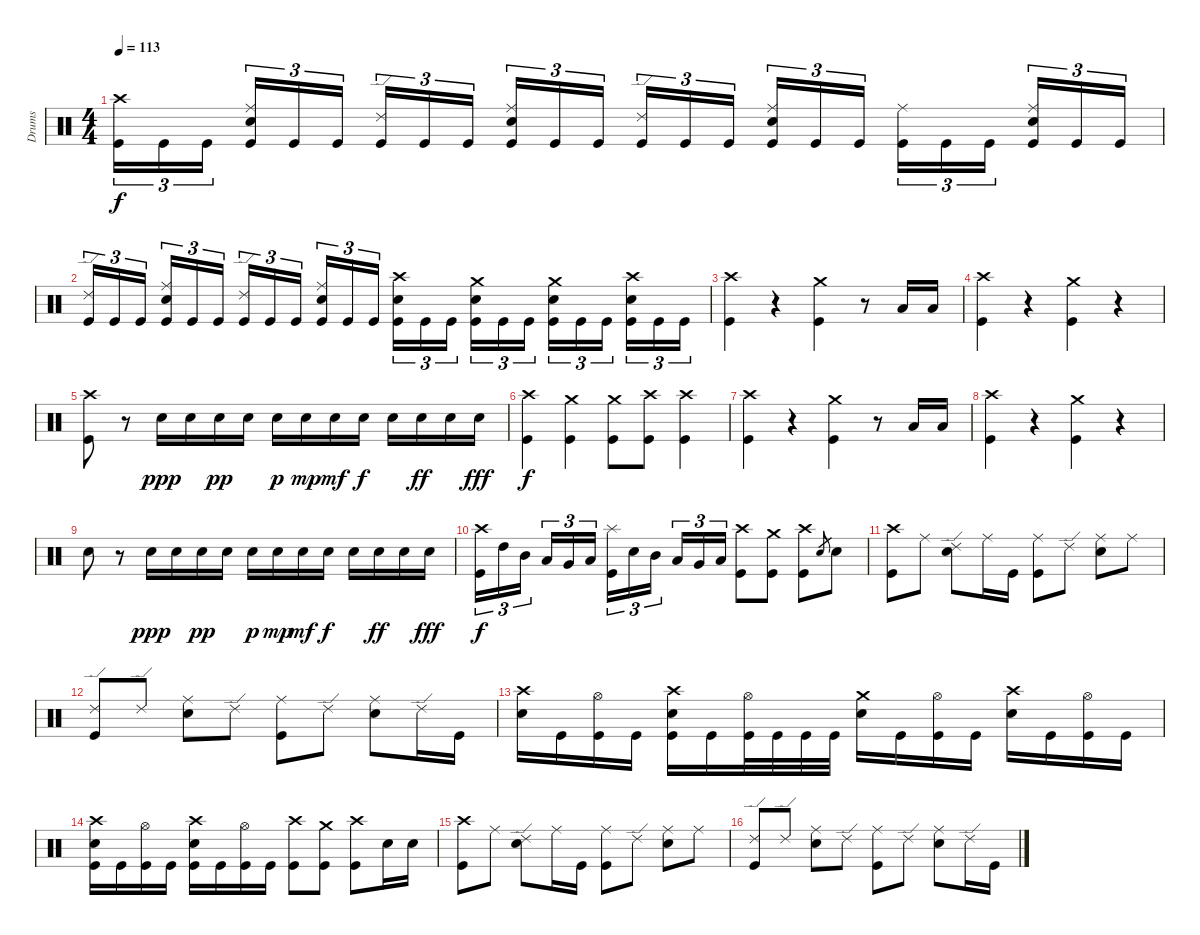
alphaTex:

\track ("Drums" "Drums") {instrument percussion}
\staff {score}
\articulation defaults
\ts (4 4)
\tempo 113
\clef neutral
\ks c
("Crash high (hit)" "Kick (hit)").16{tu (3 2) dy f} "Kick (hit)".16{tu (3 2)} "Kick (hit)".16{tu (3 2) beam splitsecondary} ("Ride (middle)" "Electric Snare (hit)" "Kick (hit)").16{tu (3 2)} "Kick (hit)".16{tu (3 2)} "Kick (hit)".16{tu (3 2)} ("Ride (edge) 2" "Kick (hit)").16{tu (3 2)} "Kick (hit)".16{tu (3 2)} "Kick (hit)".16{tu (3 2) beam splitsecondary} ("Ride (middle)" "Electric Snare (hit)" "Kick (hit)").16{tu (3 2)} "Kick (hit)".16{tu (3 2)} "Kick (hit)".16{tu (3 2)} ("Ride (edge) 2" "Kick (hit)").16{tu (3 2)} "Kick (hit)".16{tu (3 2)} "Kick (hit)".16{tu (3 2) beam splitsecondary} ("Ride (middle)" "Electric Snare (hit)" "Kick (hit)").16{tu (3 2)} "Kick (hit)".16{tu (3 2)} "Kick (hit)".16{tu (3 2)} ("Ride (middle)" "Kick (hit)").16{tu (3 2)} "Kick (hit)".16{tu (3 2)} "Kick (hit)".16{tu (3 2) beam splitsecondary} ("Ride (middle)" "Electric Snare (hit)" "Kick (hit)").16{tu (3 2)} "Kick (hit)".16{tu (3 2)} "Kick (hit)".16{tu (3 2)} |
("Ride (edge) 2" "Kick (hit)").16{tu (3 2)} "Kick (hit)".16{tu (3 2)} "Kick (hit)".16{tu (3 2) beam splitsecondary} ("Ride (middle)" "Electric Snare (hit)" "Kick (hit)").16{tu (3 2)} "Kick (hit)".16{tu (3 2)} "Kick (hit)".16{tu (3 2)} ("Ride (edge) 2" "Kick (hit)").16{tu (3 2)} "Kick (hit)".16{tu (3 2)} "Kick (hit)".16{tu (3 2) beam splitsecondary} ("Ride (middle)" "Electric Snare (hit)" "Kick (hit)").16{tu (3 2)} "Kick (hit)".16{tu (3 2)} "Kick (hit)".16{tu (3 2)} ("Crash high (hit)" "Electric Snare (hit)" "Kick (hit)").16{tu (3 2)} "Kick (hit)".16{tu (3 2)} "Kick (hit)".16{tu (3 2) beam splitsecondary} ("Crash medium (hit)" "Electric Snare (hit)" "Kick (hit)").16{tu (3 2)} "Kick (hit)".16{tu (3 2)} "Kick (hit)".16{tu (3 2)} ("Crash medium (hit)" "Electric Snare (hit)" "Kick (hit)").16{tu (3 2)} "Kick (hit)".16{tu (3 2)} "Kick (hit)".16{tu (3 2) beam splitsecondary} ("Crash high (hit)" "Electric Snare (hit)" "Kick (hit)").16{tu (3 2)} "Kick (hit)".16{tu (3 2)} "Kick (hit)".16{tu (3 2)} |
("Crash high (hit)" "Kick (hit)").4 r.4 ("Crash medium (hit)" "Kick (hit)").4 r.8 "Low Tom (hit)".16 "Low Tom (hit)".16 |
("Crash high (hit)" "Kick (hit)").4 r.4 ("Crash medium (hit)" "Kick (hit)").4 r.4 |
("Crash high (hit)" "Kick (hit)").8 r.8 "Electric Snare (hit)".16{dy ppp} "Electric Snare (hit)".16 "Electric Snare (hit)".16{dy pp} "Electric Snare (hit)".16 "Electric Snare (hit)".16{dy p} "Electric Snare (hit)".16{dy mp} "Electric Snare (hit)".16{dy mf} "Electric Snare (hit)".16{dy f} "Electric Snare (hit)".16 "Electric Snare (hit)".16{dy ff} "Electric Snare (hit)".16 "Electric Snare (hit)".16{dy fff} |
("Crash high (hit)" "Kick (hit)").4{dy f} ("Crash medium (hit)" "Kick (hit)").4 ("Crash medium (hit)" "Kick (hit)").8 ("Crash high (hit)" "Kick (hit)").8 ("Crash high (hit)" "Kick (hit)").4 |
("Crash high (hit)" "Kick (hit)").4 r.4 ("Crash medium (hit)" "Kick (hit)").4 r.8 "Low Tom (hit)".16 "Low Tom (hit)".16 |
("Crash high (hit)" "Kick (hit)").4 r.4 ("Crash medium (hit)" "Kick (hit)").4 r.4 |
"Electric Snare (hit)".8 r.8 "Electric Snare (hit)".16{dy ppp} "Electric Snare (hit)".16 "Electric Snare (hit)".16{dy pp} "Electric Snare (hit)".16 "Electric Snare (hit)".16{dy p} "Electric Snare (hit)".16{dy mp} "Electric Snare (hit)".16{dy mf} "Electric Snare (hit)".16{dy f} "Electric Snare (hit)".16 "Electric Snare (hit)".16{dy ff} "Electric Snare (hit)".16 "Electric Snare (hit)".16{dy fff} |
("Crash high (hit)" "Kick (hit)").16{tu (3 2) dy f} "High Tom (hit)".16{tu (3 2)} "Mid Tom (hit)".16{tu (3 2) beam splitsecondary} "Low Tom (hit)".16{tu (3 2)} "Very Low Tom (hit)".16{tu (3 2)} "Low Floor Tom (hit)".16{tu (3 2)} ("Splash (hit)" "Kick (hit)").16{tu (3 2)} "Electric Snare (hit)".16{tu (3 2)} "Mid Tom (hit)".16{tu (3 2) beam splitsecondary} "Low Tom (hit)".16{tu (3 2)} "Very Low Tom (hit)".16{tu (3 2)} "Low Floor Tom (hit)".16{tu (3 2)} ("Crash high (hit)" "Kick (hit)").8 ("Crash medium (hit)" "Kick (hit)").8 ("Crash high (hit)" "Kick (hit)").8 "Electric Snare (hit)".8{gr} "Electric Snare (hit)".8 |
("Crash high (hit)" "Kick (hit)").8 "Ride (middle)".8 ("Ride (edge) 2" "Electric Snare (hit)").8 "Ride (middle)".16 "Kick (hit)".16 ("Ride (middle)" "Kick (hit)").8 "Ride (edge) 2".8 ("Ride (middle)" "Electric Snare (hit)").8 "Ride (middle)".8 |
("Ride (edge) 2" "Kick (hit)").8 "Ride (edge) 2".8 ("Ride (middle)" "Electric Snare (hit)").8 "Ride (edge) 2".8 ("Ride (middle)" "Kick (hit)").8 "Ride (edge) 2".8 ("Ride (middle)" "Electric Snare (hit)").8 "Ride (edge) 2".16 "Kick (hit)".16 |
("Crash high (hit)" "Electric Snare (hit)").16 "Kick (hit)".16 ("Hi-Hat (open)" "Kick (hit)").16 "Kick (hit)".16 ("Crash high (hit)" "Electric Snare (hit)" "Kick (hit)").16 "Kick (hit)".16 ("Hi-Hat (open)" "Kick (hit)").32 "Kick (hit)".32 "Kick (hit)".32 "Kick (hit)".32 ("Crash medium (hit)" "Electric Snare (hit)").16 "Kick (hit)".16 ("Hi-Hat (open)" "Kick (hit)").16 "Kick (hit)".16 ("Crash high (hit)" "Electric Snare (hit)").16 "Kick (hit)".16 ("Hi-Hat (open)" "Kick (hit)").16 "Kick (hit)".16 |
("Crash high (hit)" "Electric Snare (hit)" "Kick (hit)").16 "Kick (hit)".16 ("Hi-Hat (open)" "Kick (hit)").16 "Kick (hit)".16 ("Crash high (hit)" "Electric Snare (hit)" "Kick (hit)").16 "Kick (hit)".16 ("Hi-Hat (open)" "Kick (hit)").16 "Kick (hit)".16 ("Crash high (hit)" "Kick (hit)").8 ("Crash medium (hit)" "Kick (hit)").8 ("Crash high (hit)" "Kick (hit)").8 "Electric Snare (hit)".16 "Electric Snare (hit)".16 |
("Crash high (hit)" "Kick (hit)").8 "Ride (middle)".8 ("Ride (edge) 2" "Electric Snare (hit)").8 "Ride (middle)".16 "Kick (hit)".16 ("Ride (middle)" "Kick (hit)").8 "Ride (edge) 2".8 ("Ride (middle)" "Electric Snare (hit)").8 "Ride (middle)".8 |
("Ride (edge) 2" "Kick (hit)").8 "Ride (edge) 2".8 ("Ride (middle)" "Electric Snare (hit)").8 "Ride (edge) 2".8 ("Ride (middle)" "Kick (hit)").8 "Ride (edge) 2".8 ("Ride (middle)" "Electric Snare (hit)").8 "Ride (edge) 2".16 "Kick (hit)".16
